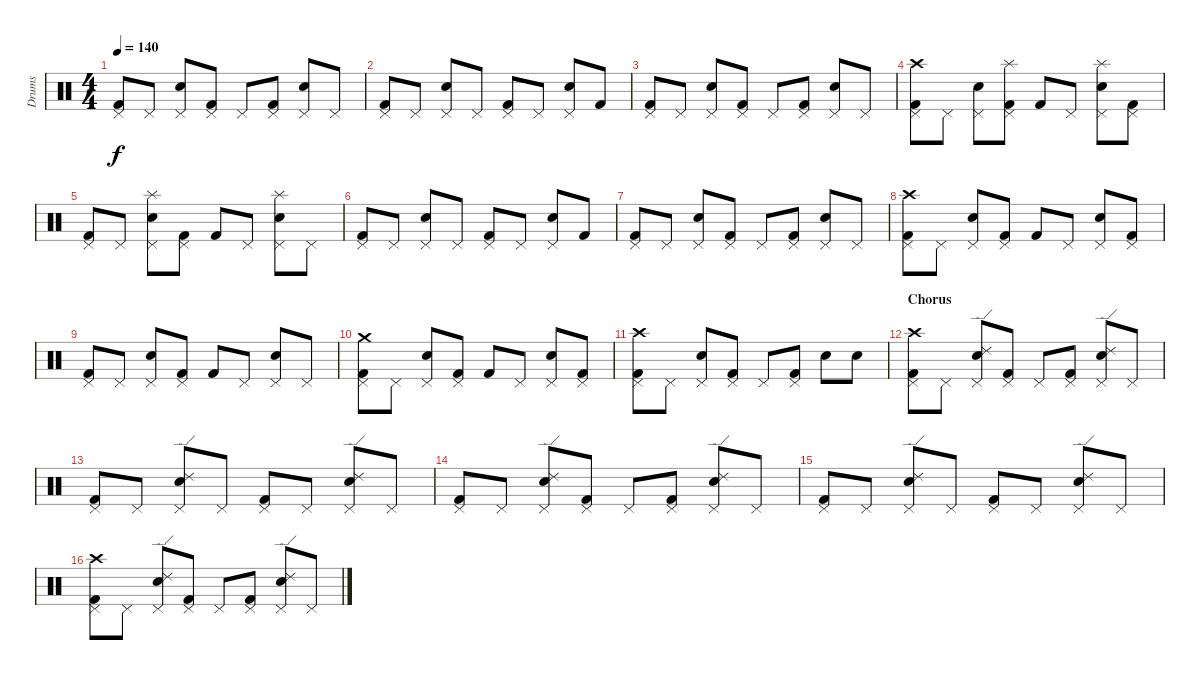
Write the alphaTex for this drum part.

\track ("Drums" "Drums") {instrument percussion}
\staff {score}
\articulation defaults
\ts (4 4)
\tempo 140
\clef neutral
\ks c
("Kick (hit) 2" "Pedal Hi-Hat (hit)").8{dy f} "Pedal Hi-Hat (hit)".8 ("Snare (hit) 2" "Pedal Hi-Hat (hit)").8 ("Kick (hit) 2" "Pedal Hi-Hat (hit)").8 "Pedal Hi-Hat (hit)".8 ("Kick (hit) 2" "Pedal Hi-Hat (hit)").8 ("Snare (hit) 2" "Pedal Hi-Hat (hit)").8 "Pedal Hi-Hat (hit)".8 |
("Kick (hit) 2" "Pedal Hi-Hat (hit)").8 "Pedal Hi-Hat (hit)".8 ("Snare (hit) 2" "Pedal Hi-Hat (hit)").8 "Pedal Hi-Hat (hit)".8 ("Kick (hit) 2" "Pedal Hi-Hat (hit)").8 "Pedal Hi-Hat (hit)".8 ("Snare (hit) 2" "Pedal Hi-Hat (hit)").8 "Kick (hit) 2".8 |
("Kick (hit) 2" "Pedal Hi-Hat (hit)").8 "Pedal Hi-Hat (hit)".8 ("Snare (hit) 2" "Pedal Hi-Hat (hit)").8 ("Kick (hit) 2" "Pedal Hi-Hat (hit)").8 "Pedal Hi-Hat (hit)".8 ("Kick (hit) 2" "Pedal Hi-Hat (hit)").8 ("Snare (hit) 2" "Pedal Hi-Hat (hit)").8 "Pedal Hi-Hat (hit)".8 |
("Kick (hit) 2" "Pedal Hi-Hat (hit)" "Crash high (hit)").8 "Pedal Hi-Hat (hit)".8 ("Snare (hit) 2" "Pedal Hi-Hat (hit)").8 ("Kick (hit) 2" "Pedal Hi-Hat (hit)" "Splash (hit)").8 "Kick (hit) 2".8 "Pedal Hi-Hat (hit)".8 ("Snare (hit) 2" "Pedal Hi-Hat (hit)" "Splash (hit)").8 ("Kick (hit) 2" "Pedal Hi-Hat (hit)").8 |
("Kick (hit) 2" "Pedal Hi-Hat (hit)").8 "Pedal Hi-Hat (hit)".8 ("Snare (hit) 2" "Pedal Hi-Hat (hit)" "Splash (hit)").8 ("Kick (hit) 2" "Pedal Hi-Hat (hit)").8 "Kick (hit) 2".8 "Pedal Hi-Hat (hit)".8 ("Snare (hit) 2" "Pedal Hi-Hat (hit)" "Splash (hit)").8 "Pedal Hi-Hat (hit)".8 |
("Kick (hit) 2" "Pedal Hi-Hat (hit)").8 "Pedal Hi-Hat (hit)".8 ("Snare (hit) 2" "Pedal Hi-Hat (hit)").8 "Pedal Hi-Hat (hit)".8 ("Kick (hit) 2" "Pedal Hi-Hat (hit)").8 "Pedal Hi-Hat (hit)".8 ("Snare (hit) 2" "Pedal Hi-Hat (hit)").8 "Kick (hit) 2".8 |
("Kick (hit) 2" "Pedal Hi-Hat (hit)").8 "Pedal Hi-Hat (hit)".8 ("Snare (hit) 2" "Pedal Hi-Hat (hit)").8 ("Kick (hit) 2" "Pedal Hi-Hat (hit)").8 "Pedal Hi-Hat (hit)".8 ("Kick (hit) 2" "Pedal Hi-Hat (hit)").8 ("Snare (hit) 2" "Pedal Hi-Hat (hit)").8 "Pedal Hi-Hat (hit)".8 |
("Kick (hit) 2" "Pedal Hi-Hat (hit)" "Crash high (hit)").8 "Pedal Hi-Hat (hit)".8 ("Snare (hit) 2" "Pedal Hi-Hat (hit)").8 ("Kick (hit) 2" "Pedal Hi-Hat (hit)").8 "Kick (hit) 2".8 "Pedal Hi-Hat (hit)".8 ("Snare (hit) 2" "Pedal Hi-Hat (hit)").8 ("Kick (hit) 2" "Pedal Hi-Hat (hit)").8 |
("Kick (hit) 2" "Pedal Hi-Hat (hit)").8 "Pedal Hi-Hat (hit)".8 ("Snare (hit) 2" "Pedal Hi-Hat (hit)").8 ("Kick (hit) 2" "Pedal Hi-Hat (hit)").8 "Kick (hit) 2".8 "Pedal Hi-Hat (hit)".8 ("Snare (hit) 2" "Pedal Hi-Hat (hit)").8 "Pedal Hi-Hat (hit)".8 |
("Kick (hit) 2" "Pedal Hi-Hat (hit)" "Crash medium (hit)").8 "Pedal Hi-Hat (hit)".8 ("Snare (hit) 2" "Pedal Hi-Hat (hit)").8 ("Kick (hit) 2" "Pedal Hi-Hat (hit)").8 "Kick (hit) 2".8 "Pedal Hi-Hat (hit)".8 ("Snare (hit) 2" "Pedal Hi-Hat (hit)").8 ("Kick (hit) 2" "Pedal Hi-Hat (hit)").8 |
("Kick (hit) 2" "Pedal Hi-Hat (hit)" "Crash high (hit)").8 "Pedal Hi-Hat (hit)".8 ("Snare (hit) 2" "Pedal Hi-Hat (hit)").8 ("Kick (hit) 2" "Pedal Hi-Hat (hit)").8 "Pedal Hi-Hat (hit)".8 ("Kick (hit) 2" "Pedal Hi-Hat (hit)").8 "Snare (hit) 2".8 "Snare (hit) 2".8 |
\section ("" "Chorus")
("Kick (hit) 2" "Pedal Hi-Hat (hit)" "Crash high (hit)").8 "Pedal Hi-Hat (hit)".8 ("Snare (hit) 2" "Pedal Hi-Hat (hit)" "Ride (edge) 2").8 ("Kick (hit) 2" "Pedal Hi-Hat (hit)").8 "Pedal Hi-Hat (hit)".8 ("Kick (hit) 2" "Pedal Hi-Hat (hit)").8 ("Snare (hit) 2" "Pedal Hi-Hat (hit)" "Ride (edge) 2").8 "Pedal Hi-Hat (hit)".8 |
("Kick (hit) 2" "Pedal Hi-Hat (hit)").8 "Pedal Hi-Hat (hit)".8 ("Snare (hit) 2" "Pedal Hi-Hat (hit)" "Ride (edge) 2").8 "Pedal Hi-Hat (hit)".8 ("Kick (hit) 2" "Pedal Hi-Hat (hit)").8 "Pedal Hi-Hat (hit)".8 ("Snare (hit) 2" "Pedal Hi-Hat (hit)" "Ride (edge) 2").8 "Pedal Hi-Hat (hit)".8 |
("Kick (hit) 2" "Pedal Hi-Hat (hit)").8 "Pedal Hi-Hat (hit)".8 ("Snare (hit) 2" "Pedal Hi-Hat (hit)" "Ride (edge) 2").8 ("Kick (hit) 2" "Pedal Hi-Hat (hit)").8 "Pedal Hi-Hat (hit)".8 ("Kick (hit) 2" "Pedal Hi-Hat (hit)").8 ("Snare (hit) 2" "Pedal Hi-Hat (hit)" "Ride (edge) 2").8 "Pedal Hi-Hat (hit)".8 |
("Kick (hit) 2" "Pedal Hi-Hat (hit)").8 "Pedal Hi-Hat (hit)".8 ("Snare (hit) 2" "Pedal Hi-Hat (hit)" "Ride (edge) 2").8 "Pedal Hi-Hat (hit)".8 ("Kick (hit) 2" "Pedal Hi-Hat (hit)").8 "Pedal Hi-Hat (hit)".8 ("Snare (hit) 2" "Pedal Hi-Hat (hit)" "Ride (edge) 2").8 "Pedal Hi-Hat (hit)".8 |
("Kick (hit) 2" "Pedal Hi-Hat (hit)" "Crash high (hit)").8 "Pedal Hi-Hat (hit)".8 ("Snare (hit) 2" "Pedal Hi-Hat (hit)" "Ride (edge) 2").8 ("Kick (hit) 2" "Pedal Hi-Hat (hit)").8 "Pedal Hi-Hat (hit)".8 ("Kick (hit) 2" "Pedal Hi-Hat (hit)").8 ("Snare (hit) 2" "Pedal Hi-Hat (hit)" "Ride (edge) 2").8 "Pedal Hi-Hat (hit)".8
